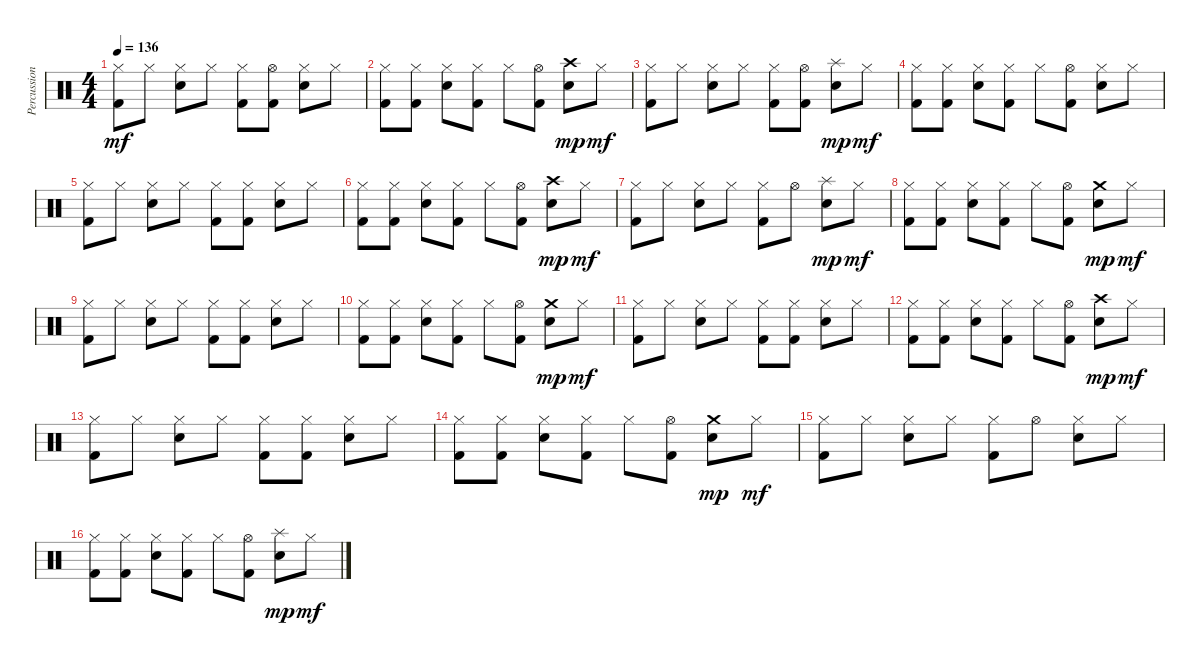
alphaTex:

\track ("Percussions" "Percussion") {instrument percussion}
\staff {score}
\articulation defaults
\ts (4 4)
\tempo 136
\clef neutral
\ks c
("Hi-Hat (closed)" "Kick (hit) 2").8{dy mf} "Hi-Hat (closed)".8 ("Hi-Hat (closed)" "Electric Snare (hit)").8 "Hi-Hat (closed)".8 ("Hi-Hat (closed)" "Kick (hit) 2").8 ("Hi-Hat (open)" "Kick (hit) 2").8 ("Hi-Hat (closed)" "Electric Snare (hit)").8 "Hi-Hat (closed)".8 |
("Hi-Hat (closed)" "Kick (hit) 2").8 ("Hi-Hat (closed)" "Kick (hit) 2").8 ("Hi-Hat (closed)" "Electric Snare (hit)").8 ("Hi-Hat (closed)" "Kick (hit) 2").8 "Hi-Hat (closed)".8 ("Hi-Hat (open)" "Kick (hit) 2").8 ("Crash high (hit)" "Electric Snare (hit)").8{dy mp} "Hi-Hat (closed)".8{dy mf} |
("Hi-Hat (closed)" "Kick (hit) 2").8 "Hi-Hat (closed)".8 ("Hi-Hat (closed)" "Electric Snare (hit)").8 "Hi-Hat (closed)".8 ("Hi-Hat (closed)" "Kick (hit) 2").8 ("Hi-Hat (open)" "Kick (hit) 2").8 ("Splash (hit)" "Electric Snare (hit)").8{dy mp} "Hi-Hat (closed)".8{dy mf} |
("Hi-Hat (closed)" "Kick (hit) 2").8 ("Hi-Hat (closed)" "Kick (hit) 2").8 ("Hi-Hat (closed)" "Electric Snare (hit)").8 ("Hi-Hat (closed)" "Kick (hit) 2").8 "Hi-Hat (closed)".8 ("Hi-Hat (open)" "Kick (hit) 2").8 ("Hi-Hat (closed)" "Electric Snare (hit)").8 "Hi-Hat (closed)".8 |
("Hi-Hat (closed)" "Kick (hit) 2").8 "Hi-Hat (closed)".8 ("Hi-Hat (closed)" "Electric Snare (hit)").8 "Hi-Hat (closed)".8 ("Hi-Hat (closed)" "Kick (hit) 2").8 ("Hi-Hat (closed)" "Kick (hit) 2").8 ("Hi-Hat (closed)" "Electric Snare (hit)").8 "Hi-Hat (closed)".8 |
("Hi-Hat (closed)" "Kick (hit) 2").8 ("Hi-Hat (closed)" "Kick (hit) 2").8 ("Hi-Hat (closed)" "Electric Snare (hit)").8 ("Hi-Hat (closed)" "Kick (hit) 2").8 "Hi-Hat (closed)".8 ("Hi-Hat (open)" "Kick (hit) 2").8 ("Crash high (hit)" "Electric Snare (hit)").8{dy mp} "Hi-Hat (closed)".8{dy mf} |
("Hi-Hat (closed)" "Kick (hit) 2").8 "Hi-Hat (closed)".8 ("Hi-Hat (closed)" "Electric Snare (hit)").8 "Hi-Hat (closed)".8 ("Hi-Hat (closed)" "Kick (hit) 2").8 "Hi-Hat (open)".8 ("Splash (hit)" "Electric Snare (hit)").8{dy mp} "Hi-Hat (closed)".8{dy mf} |
("Hi-Hat (closed)" "Kick (hit) 2").8 ("Hi-Hat (closed)" "Kick (hit) 2").8 ("Hi-Hat (closed)" "Electric Snare (hit)").8 ("Hi-Hat (closed)" "Kick (hit) 2").8 "Hi-Hat (closed)".8 ("Hi-Hat (open)" "Kick (hit) 2").8 ("Crash medium (hit)" "Electric Snare (hit)").8{dy mp} "Hi-Hat (closed)".8{dy mf} |
("Hi-Hat (closed)" "Kick (hit) 2").8 "Hi-Hat (closed)".8 ("Hi-Hat (closed)" "Electric Snare (hit)").8 "Hi-Hat (closed)".8 ("Hi-Hat (closed)" "Kick (hit) 2").8 ("Hi-Hat (closed)" "Kick (hit) 2").8 ("Hi-Hat (closed)" "Electric Snare (hit)").8 "Hi-Hat (closed)".8 |
("Hi-Hat (closed)" "Kick (hit) 2").8 ("Hi-Hat (closed)" "Kick (hit) 2").8 ("Hi-Hat (closed)" "Electric Snare (hit)").8 ("Hi-Hat (closed)" "Kick (hit) 2").8 "Hi-Hat (closed)".8 ("Hi-Hat (open)" "Kick (hit) 2").8 ("Crash medium (hit)" "Electric Snare (hit)").8{dy mp} "Hi-Hat (closed)".8{dy mf} |
("Hi-Hat (closed)" "Kick (hit) 2").8 "Hi-Hat (closed)".8 ("Hi-Hat (closed)" "Electric Snare (hit)").8 "Hi-Hat (closed)".8 ("Hi-Hat (closed)" "Kick (hit) 2").8 ("Hi-Hat (closed)" "Kick (hit) 2").8 ("Hi-Hat (closed)" "Electric Snare (hit)").8 "Hi-Hat (closed)".8 |
("Hi-Hat (closed)" "Kick (hit) 2").8 ("Hi-Hat (closed)" "Kick (hit) 2").8 ("Hi-Hat (closed)" "Electric Snare (hit)").8 ("Hi-Hat (closed)" "Kick (hit) 2").8 "Hi-Hat (closed)".8 ("Hi-Hat (open)" "Kick (hit) 2").8 ("Crash high (hit)" "Electric Snare (hit)").8{dy mp} "Hi-Hat (closed)".8{dy mf} |
("Hi-Hat (closed)" "Kick (hit) 2").8 "Hi-Hat (closed)".8 ("Hi-Hat (closed)" "Electric Snare (hit)").8 "Hi-Hat (closed)".8 ("Hi-Hat (closed)" "Kick (hit) 2").8 ("Hi-Hat (closed)" "Kick (hit) 2").8 ("Hi-Hat (closed)" "Electric Snare (hit)").8 "Hi-Hat (closed)".8 |
("Hi-Hat (closed)" "Kick (hit) 2").8 ("Hi-Hat (closed)" "Kick (hit) 2").8 ("Hi-Hat (closed)" "Electric Snare (hit)").8 ("Hi-Hat (closed)" "Kick (hit) 2").8 "Hi-Hat (closed)".8 ("Hi-Hat (open)" "Kick (hit) 2").8 ("Crash medium (hit)" "Electric Snare (hit)").8{dy mp} "Hi-Hat (closed)".8{dy mf} |
("Hi-Hat (closed)" "Kick (hit) 2").8 "Hi-Hat (closed)".8 ("Hi-Hat (closed)" "Electric Snare (hit)").8 "Hi-Hat (closed)".8 ("Hi-Hat (closed)" "Kick (hit) 2").8 "Hi-Hat (open)".8 ("Hi-Hat (closed)" "Electric Snare (hit)").8 "Hi-Hat (closed)".8 |
("Hi-Hat (closed)" "Kick (hit) 2").8 ("Hi-Hat (closed)" "Kick (hit) 2").8 ("Hi-Hat (closed)" "Electric Snare (hit)").8 ("Hi-Hat (closed)" "Kick (hit) 2").8 "Hi-Hat (closed)".8 ("Hi-Hat (open)" "Kick (hit) 2").8 ("Splash (hit)" "Electric Snare (hit)").8{dy mp} "Hi-Hat (closed)".8{dy mf}
